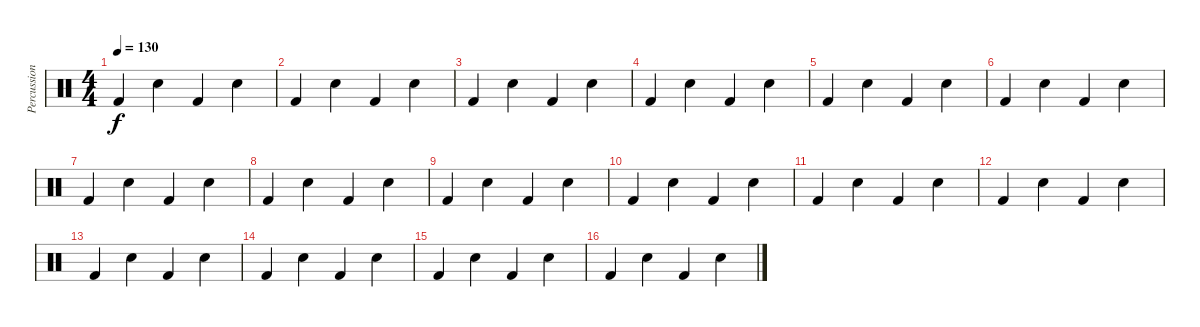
\track ("Percussion 2" "Percussion") {instrument percussion}
\staff {score}
\articulation defaults
\ts (4 4)
\tempo 130
\clef neutral
\ks c "Kick (hit) 2".4{dy f} "Electric Snare (hit)".4 "Kick (hit) 2".4 "Electric Snare (hit)".4
|
"Kick (hit) 2".4 "Electric Snare (hit)".4 "Kick (hit) 2".4 "Electric Snare (hit)".4 |
"Kick (hit) 2".4 "Electric Snare (hit)".4 "Kick (hit) 2".4 "Electric Snare (hit)".4 |
"Kick (hit) 2".4 "Electric Snare (hit)".4 "Kick (hit) 2".4 "Electric Snare (hit)".4 |
"Kick (hit) 2".4 "Electric Snare (hit)".4 "Kick (hit) 2".4 "Electric Snare (hit)".4 |
"Kick (hit) 2".4 "Electric Snare (hit)".4 "Kick (hit) 2".4 "Electric Snare (hit)".4 |
"Kick (hit) 2".4 "Electric Snare (hit)".4 "Kick (hit) 2".4 "Electric Snare (hit)".4 |
"Kick (hit) 2".4 "Electric Snare (hit)".4 "Kick (hit) 2".4 "Electric Snare (hit)".4 |
"Kick (hit) 2".4 "Electric Snare (hit)".4 "Kick (hit) 2".4 "Electric Snare (hit)".4 |
"Kick (hit) 2".4 "Electric Snare (hit)".4 "Kick (hit) 2".4 "Electric Snare (hit)".4 |
"Kick (hit) 2".4 "Electric Snare (hit)".4 "Kick (hit) 2".4 "Electric Snare (hit)".4 |
"Kick (hit) 2".4 "Electric Snare (hit)".4 "Kick (hit) 2".4 "Electric Snare (hit)".4 |
"Kick (hit) 2".4 "Electric Snare (hit)".4 "Kick (hit) 2".4 "Electric Snare (hit)".4 |
"Kick (hit) 2".4 "Electric Snare (hit)".4 "Kick (hit) 2".4 "Electric Snare (hit)".4 |
"Kick (hit) 2".4 "Electric Snare (hit)".4 "Kick (hit) 2".4 "Electric Snare (hit)".4 |
"Kick (hit) 2".4 "Electric Snare (hit)".4 "Kick (hit) 2".4 "Electric Snare (hit)".4
